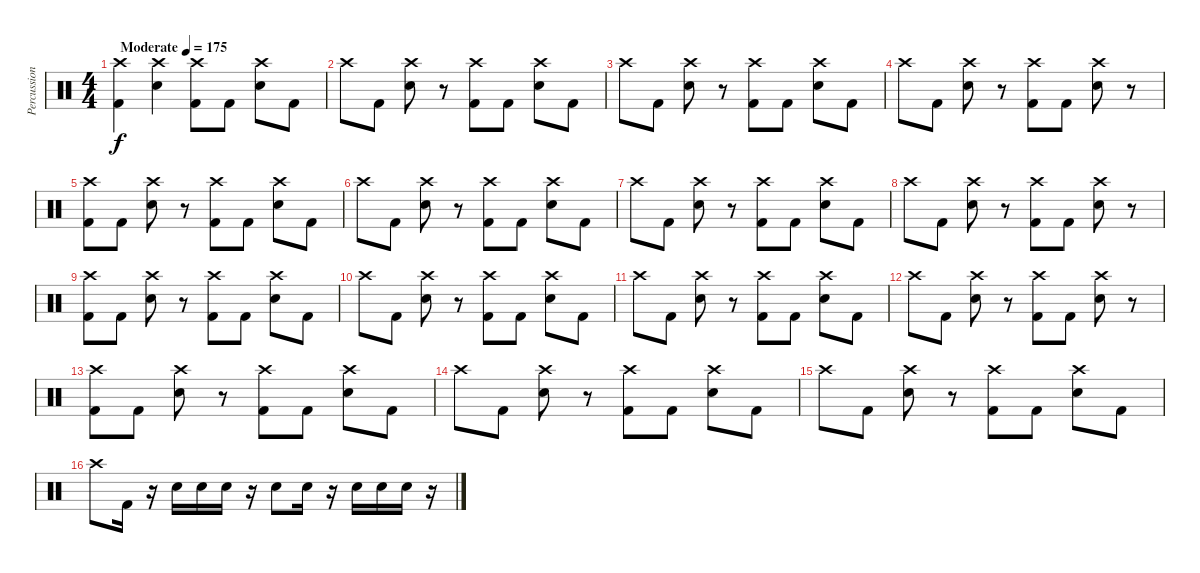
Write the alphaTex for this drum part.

\track ("Percussion" "Percussion") {instrument percussion}
\staff {score}
\articulation defaults
\ts (4 4)
\tempo (175 "Moderate")
\clef neutral
\ks c
("Crash high (hit)" "Kick (hit) 2").4{dy f} ("Crash high (hit)" "Electric Snare (hit)").4 ("Crash high (hit)" "Kick (hit) 2").8 "Kick (hit) 2".8 ("Crash high (hit)" "Electric Snare (hit)").8 "Kick (hit) 2".8 |
"Crash high (hit)".8 "Kick (hit) 2".8 ("Crash high (hit)" "Electric Snare (hit)").8 r.8 ("Crash high (hit)" "Kick (hit) 2").8 "Kick (hit) 2".8 ("Crash high (hit)" "Electric Snare (hit)").8 "Kick (hit) 2".8 |
"Crash high (hit)".8 "Kick (hit) 2".8 ("Crash high (hit)" "Electric Snare (hit)").8 r.8 ("Crash high (hit)" "Kick (hit) 2").8 "Kick (hit) 2".8 ("Crash high (hit)" "Electric Snare (hit)").8 "Kick (hit) 2".8 |
"Crash high (hit)".8 "Kick (hit) 2".8 ("Crash high (hit)" "Electric Snare (hit)").8 r.8 ("Crash high (hit)" "Kick (hit) 2").8 "Kick (hit) 2".8 ("Crash high (hit)" "Electric Snare (hit)").8 r.8 |
("Crash high (hit)" "Kick (hit) 2").8 "Kick (hit) 2".8 ("Crash high (hit)" "Electric Snare (hit)").8 r.8 ("Crash high (hit)" "Kick (hit) 2").8 "Kick (hit) 2".8 ("Crash high (hit)" "Electric Snare (hit)").8 "Kick (hit) 2".8 |
"Crash high (hit)".8 "Kick (hit) 2".8 ("Crash high (hit)" "Electric Snare (hit)").8 r.8 ("Crash high (hit)" "Kick (hit) 2").8 "Kick (hit) 2".8 ("Crash high (hit)" "Electric Snare (hit)").8 "Kick (hit) 2".8 |
"Crash high (hit)".8 "Kick (hit) 2".8 ("Crash high (hit)" "Electric Snare (hit)").8 r.8 ("Crash high (hit)" "Kick (hit) 2").8 "Kick (hit) 2".8 ("Crash high (hit)" "Electric Snare (hit)").8 "Kick (hit) 2".8 |
"Crash high (hit)".8 "Kick (hit) 2".8 ("Crash high (hit)" "Electric Snare (hit)").8 r.8 ("Crash high (hit)" "Kick (hit) 2").8 "Kick (hit) 2".8 ("Crash high (hit)" "Electric Snare (hit)").8 r.8 |
("Crash high (hit)" "Kick (hit) 2").8 "Kick (hit) 2".8 ("Crash high (hit)" "Electric Snare (hit)").8 r.8 ("Crash high (hit)" "Kick (hit) 2").8 "Kick (hit) 2".8 ("Crash high (hit)" "Electric Snare (hit)").8 "Kick (hit) 2".8 |
"Crash high (hit)".8 "Kick (hit) 2".8 ("Crash high (hit)" "Electric Snare (hit)").8 r.8 ("Crash high (hit)" "Kick (hit) 2").8 "Kick (hit) 2".8 ("Crash high (hit)" "Electric Snare (hit)").8 "Kick (hit) 2".8 |
"Crash high (hit)".8 "Kick (hit) 2".8 ("Crash high (hit)" "Electric Snare (hit)").8 r.8 ("Crash high (hit)" "Kick (hit) 2").8 "Kick (hit) 2".8 ("Crash high (hit)" "Electric Snare (hit)").8 "Kick (hit) 2".8 |
"Crash high (hit)".8 "Kick (hit) 2".8 ("Crash high (hit)" "Electric Snare (hit)").8 r.8 ("Crash high (hit)" "Kick (hit) 2").8 "Kick (hit) 2".8 ("Crash high (hit)" "Electric Snare (hit)").8 r.8 |
("Crash high (hit)" "Kick (hit) 2").8 "Kick (hit) 2".8 ("Crash high (hit)" "Electric Snare (hit)").8 r.8 ("Crash high (hit)" "Kick (hit) 2").8 "Kick (hit) 2".8 ("Crash high (hit)" "Electric Snare (hit)").8 "Kick (hit) 2".8 |
"Crash high (hit)".8 "Kick (hit) 2".8 ("Crash high (hit)" "Electric Snare (hit)").8 r.8 ("Crash high (hit)" "Kick (hit) 2").8 "Kick (hit) 2".8 ("Crash high (hit)" "Electric Snare (hit)").8 "Kick (hit) 2".8 |
"Crash high (hit)".8 "Kick (hit) 2".8 ("Crash high (hit)" "Electric Snare (hit)").8 r.8 ("Crash high (hit)" "Kick (hit) 2").8 "Kick (hit) 2".8 ("Crash high (hit)" "Electric Snare (hit)").8 "Kick (hit) 2".8 |
"Crash high (hit)".8 "Kick (hit) 2".16 r.16 "Electric Snare (hit)".16 "Electric Snare (hit)".16 "Electric Snare (hit)".16 r.16 "Electric Snare (hit)".8 "Electric Snare (hit)".16 r.16 "Electric Snare (hit)".16 "Electric Snare (hit)".16 "Electric Snare (hit)".16 r.16
